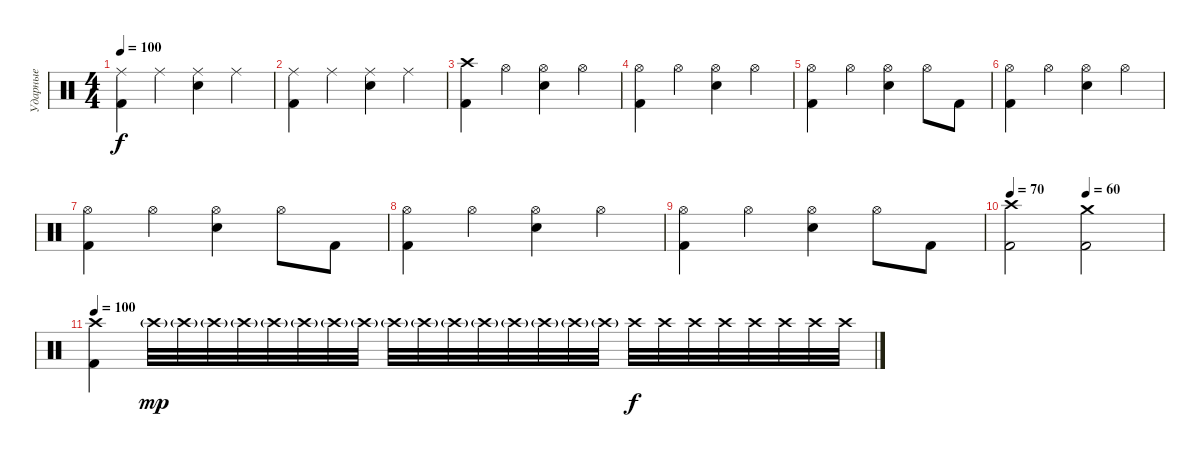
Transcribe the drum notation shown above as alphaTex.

\track ("Ударные" "Ударные") {instrument percussion}
\staff {score}
\articulation defaults
\ts (4 4)
\tempo 100
\clef neutral
\ks c
("Kick (hit) 2" "Ride (middle)").4{dy f} "Ride (middle)".4 ("Snare (hit) 2" "Ride (middle)").4 "Ride (middle)".4 |
("Kick (hit) 2" "Ride (middle)").4 "Ride (middle)".4 ("Snare (hit) 2" "Ride (middle)").4 "Ride (middle)".4 |
("Kick (hit) 2" "Crash high (hit)").4 "Hi-Hat (open)".4 ("Snare (hit) 2" "Hi-Hat (open)").4 "Hi-Hat (open)".4 |
("Kick (hit) 2" "Hi-Hat (open)").4 "Hi-Hat (open)".4 ("Snare (hit) 2" "Hi-Hat (open)").4 "Hi-Hat (open)".4 |
("Kick (hit) 2" "Hi-Hat (open)").4 "Hi-Hat (open)".4 ("Snare (hit) 2" "Hi-Hat (open)").4 "Hi-Hat (open)".8 "Kick (hit) 2".8 |
("Kick (hit) 2" "Hi-Hat (open)").4 "Hi-Hat (open)".4 ("Snare (hit) 2" "Hi-Hat (open)").4 "Hi-Hat (open)".4 |
("Kick (hit) 2" "Hi-Hat (open)").4 "Hi-Hat (open)".4 ("Snare (hit) 2" "Hi-Hat (open)").4 "Hi-Hat (open)".8 "Kick (hit) 2".8 |
("Kick (hit) 2" "Hi-Hat (open)").4 "Hi-Hat (open)".4 ("Snare (hit) 2" "Hi-Hat (open)").4 "Hi-Hat (open)".4 |
("Kick (hit) 2" "Hi-Hat (open)").4 "Hi-Hat (open)".4 ("Snare (hit) 2" "Hi-Hat (open)").4 "Hi-Hat (open)".8 "Kick (hit) 2".8 |
\tempo 70
\tempo (60 0.5)
("Kick (hit) 2" "Crash high (hit)").2 ("Kick (hit) 2" "Crash medium (hit)").2 |
\tempo 100
("Kick (hit) 2" "Crash high (hit)").4 "Crash high (hit)"{g}.32{dy mp volume 5} "Crash high (hit)"{g}.32 "Crash high (hit)"{g}.32 "Crash high (hit)"{g}.32 "Crash high (hit)"{g}.32 "Crash high (hit)"{g}.32 "Crash high (hit)"{g}.32 "Crash high (hit)"{g}.32 "Crash high (hit)"{g}.32 "Crash high (hit)"{g}.32 "Crash high (hit)"{g}.32 "Crash high (hit)"{g}.32 "Crash high (hit)"{g}.32 "Crash high (hit)"{g}.32 "Crash high (hit)"{g}.32 "Crash high (hit)"{g}.32 "Crash high (hit)".32{dy f} "Crash high (hit)".32 "Crash high (hit)".32 "Crash high (hit)".32 "Crash high (hit)".32 "Crash high (hit)".32 "Crash high (hit)".32 "Crash high (hit)".32
